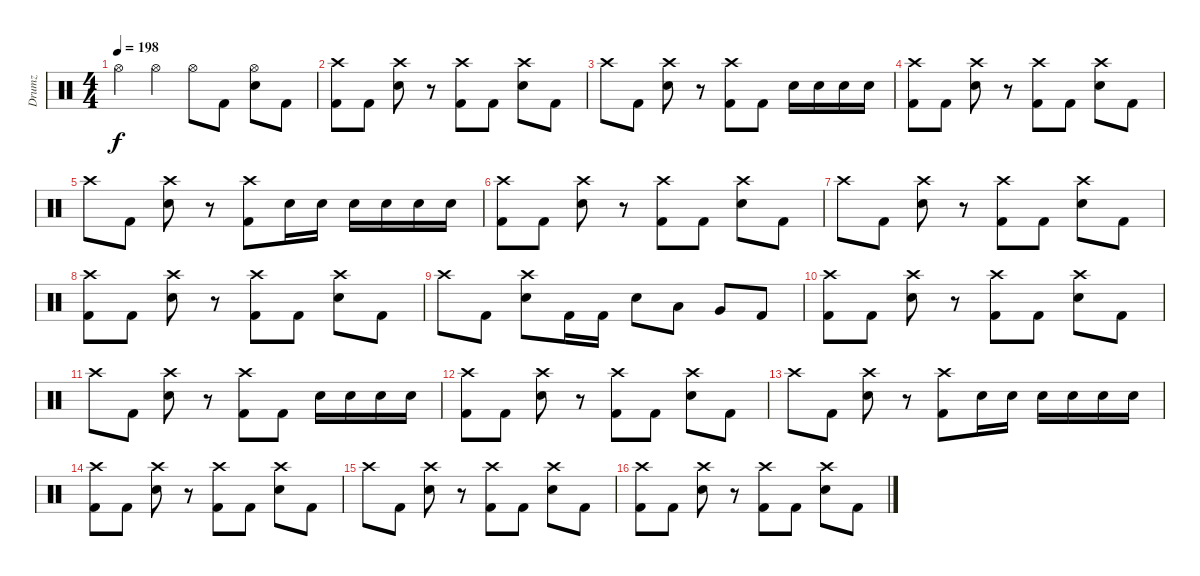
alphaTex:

\track ("Drumz" "Drumz") {instrument percussion}
\staff {score}
\articulation defaults
\ts (4 4)
\tempo 198
\clef neutral
\ks c "Hi-Hat (open)".4{dy f} "Hi-Hat (open)".4 "Hi-Hat (open)".8 "Kick (hit) 2".8
("Hi-Hat (open)" "Electric Snare (hit)").8 "Kick (hit) 2".8 |
("Crash high (hit)" "Kick (hit) 2").8 "Kick (hit) 2".8 ("Crash high (hit)" "Electric Snare (hit)").8 r.8 ("Crash high (hit)" "Kick (hit) 2").8 "Kick (hit) 2".8 ("Crash high (hit)" "Electric Snare (hit)").8 "Kick (hit) 2".8 |
"Crash high (hit)".8 "Kick (hit) 2".8 ("Crash high (hit)" "Electric Snare (hit)").8 r.8 ("Crash high (hit)" "Kick (hit) 2").8 "Kick (hit) 2".8 "Electric Snare (hit)".16 "Electric Snare (hit)".16 "Electric Snare (hit)".16 "Electric Snare (hit)".16 |
("Crash high (hit)" "Kick (hit) 2").8 "Kick (hit) 2".8 ("Crash high (hit)" "Electric Snare (hit)").8 r.8 ("Crash high (hit)" "Kick (hit) 2").8 "Kick (hit) 2".8 ("Crash high (hit)" "Electric Snare (hit)").8 "Kick (hit) 2".8 |
"Crash high (hit)".8 "Kick (hit) 2".8 ("Crash high (hit)" "Electric Snare (hit)").8 r.8 ("Crash high (hit)" "Kick (hit) 2").8 "Electric Snare (hit)".16 "Electric Snare (hit)".16 "Electric Snare (hit)".16 "Electric Snare (hit)".16 "Electric Snare (hit)".16 "Electric Snare (hit)".16 |
("Crash high (hit)" "Kick (hit) 2").8 "Kick (hit) 2".8 ("Crash high (hit)" "Electric Snare (hit)").8 r.8 ("Crash high (hit)" "Kick (hit) 2").8 "Kick (hit) 2".8 ("Crash high (hit)" "Electric Snare (hit)").8 "Kick (hit) 2".8 |
"Crash high (hit)".8 "Kick (hit) 2".8 ("Crash high (hit)" "Electric Snare (hit)").8 r.8 ("Crash high (hit)" "Kick (hit) 2").8 "Kick (hit) 2".8 ("Crash high (hit)" "Electric Snare (hit)").8 "Kick (hit) 2".8 |
("Crash high (hit)" "Kick (hit) 2").8 "Kick (hit) 2".8 ("Crash high (hit)" "Electric Snare (hit)").8 r.8 ("Crash high (hit)" "Kick (hit) 2").8 "Kick (hit) 2".8 ("Crash high (hit)" "Electric Snare (hit)").8 "Kick (hit) 2".8 |
"Crash high (hit)".8 "Kick (hit) 2".8 ("Crash high (hit)" "Electric Snare (hit)").8 "Kick (hit) 2".16 "Kick (hit) 2".16 "Electric Snare (hit)".8 "Low Tom (hit)".8 "Very Low Tom (hit)".8 "Kick (hit) 2".8 |
("Crash high (hit)" "Kick (hit) 2").8 "Kick (hit) 2".8 ("Crash high (hit)" "Electric Snare (hit)").8 r.8 ("Crash high (hit)" "Kick (hit) 2").8 "Kick (hit) 2".8 ("Crash high (hit)" "Electric Snare (hit)").8 "Kick (hit) 2".8 |
"Crash high (hit)".8 "Kick (hit) 2".8 ("Crash high (hit)" "Electric Snare (hit)").8 r.8 ("Crash high (hit)" "Kick (hit) 2").8 "Kick (hit) 2".8 "Electric Snare (hit)".16 "Electric Snare (hit)".16 "Electric Snare (hit)".16 "Electric Snare (hit)".16 |
("Crash high (hit)" "Kick (hit) 2").8 "Kick (hit) 2".8 ("Crash high (hit)" "Electric Snare (hit)").8 r.8 ("Crash high (hit)" "Kick (hit) 2").8 "Kick (hit) 2".8 ("Crash high (hit)" "Electric Snare (hit)").8 "Kick (hit) 2".8 |
"Crash high (hit)".8 "Kick (hit) 2".8 ("Crash high (hit)" "Electric Snare (hit)").8 r.8 ("Crash high (hit)" "Kick (hit) 2").8 "Electric Snare (hit)".16 "Electric Snare (hit)".16 "Electric Snare (hit)".16 "Electric Snare (hit)".16 "Electric Snare (hit)".16 "Electric Snare (hit)".16 |
("Crash high (hit)" "Kick (hit) 2").8 "Kick (hit) 2".8 ("Crash high (hit)" "Electric Snare (hit)").8 r.8 ("Crash high (hit)" "Kick (hit) 2").8 "Kick (hit) 2".8 ("Crash high (hit)" "Electric Snare (hit)").8 "Kick (hit) 2".8 |
"Crash high (hit)".8 "Kick (hit) 2".8 ("Crash high (hit)" "Electric Snare (hit)").8 r.8 ("Crash high (hit)" "Kick (hit) 2").8 "Kick (hit) 2".8 ("Crash high (hit)" "Electric Snare (hit)").8 "Kick (hit) 2".8 |
("Crash high (hit)" "Kick (hit) 2").8 "Kick (hit) 2".8 ("Crash high (hit)" "Electric Snare (hit)").8 r.8 ("Crash high (hit)" "Kick (hit) 2").8 "Kick (hit) 2".8 ("Crash high (hit)" "Electric Snare (hit)").8 "Kick (hit) 2".8
